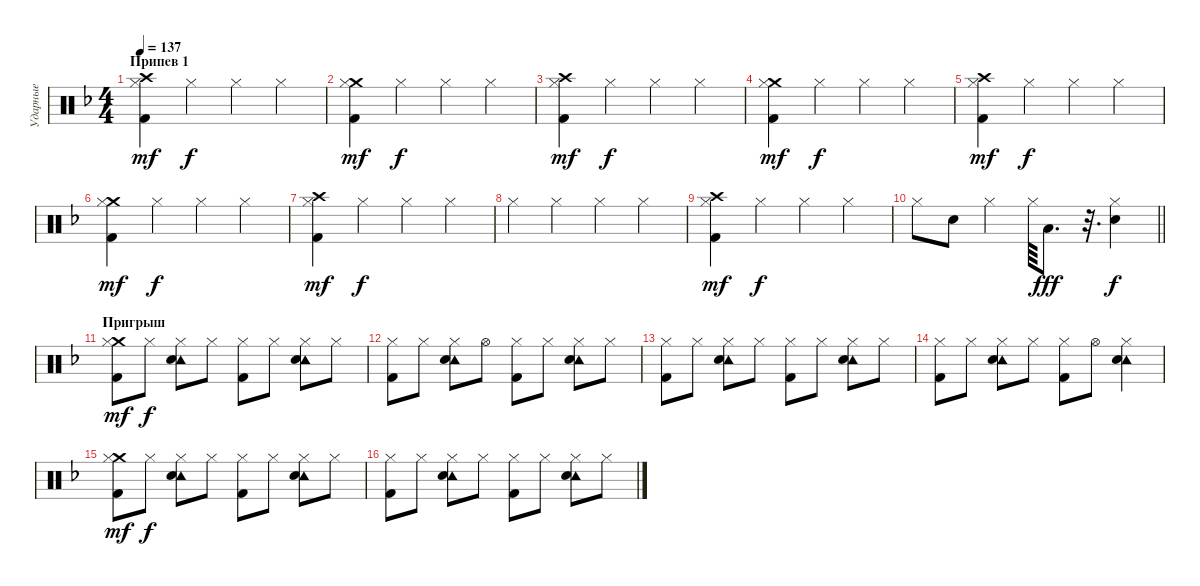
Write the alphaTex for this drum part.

\track ("Ударные" "Ударные") {instrument percussion}
\staff {score}
\articulation defaults
\ts (4 4)
\section ("" "Припев 1")
\tempo 137
\clef neutral
\ks dminor
("Crash high (hit)" "Hi-Hat (closed)" "Kick (hit) 2").4{dy mf} "Hi-Hat (closed)".4{dy f} "Hi-Hat (closed)".4 "Hi-Hat (closed)".4 |
("Crash medium (hit)" "Hi-Hat (closed)" "Kick (hit) 2").4{dy mf} "Hi-Hat (closed)".4{dy f} "Hi-Hat (closed)".4 "Hi-Hat (closed)".4 |
("Crash high (hit)" "Hi-Hat (closed)" "Kick (hit) 2").4{dy mf} "Hi-Hat (closed)".4{dy f} "Hi-Hat (closed)".4 "Hi-Hat (closed)".4 |
("Crash medium (hit)" "Hi-Hat (closed)" "Kick (hit) 2").4{dy mf} "Hi-Hat (closed)".4{dy f} "Hi-Hat (closed)".4 "Hi-Hat (closed)".4 |
("Crash high (hit)" "Hi-Hat (closed)" "Kick (hit) 2").4{dy mf} "Hi-Hat (closed)".4{dy f} "Hi-Hat (closed)".4 "Hi-Hat (closed)".4 |
("Crash medium (hit)" "Hi-Hat (closed)" "Kick (hit) 2").4{dy mf} "Hi-Hat (closed)".4{dy f} "Hi-Hat (closed)".4 "Hi-Hat (closed)".4 |
("Crash high (hit)" "Hi-Hat (closed)" "Kick (hit) 2").4{dy mf} "Hi-Hat (closed)".4{dy f} "Hi-Hat (closed)".4 "Hi-Hat (closed)".4 |
"Hi-Hat (closed)".4 "Hi-Hat (closed)".4 "Hi-Hat (closed)".4 "Hi-Hat (closed)".4 |
("Crash high (hit)" "Hi-Hat (closed)" "Kick (hit) 2").4{dy mf} "Hi-Hat (closed)".4{dy f} "Hi-Hat (closed)".4 "Hi-Hat (closed)".4 |
\barLineRight lightlight "Hi-Hat (closed)".8 "Electric Snare (hit)".8 "Hi-Hat (closed)".4 "Hi-Hat (closed)".64 "Low Floor Tom (hit)".8{d dy fff}
r.32{d} ("Hi-Hat (closed)" "Electric Snare (hit)").4{dy f} |
\section ("" "Пригрыш")
("Crash medium (hit)" "Hi-Hat (closed)" "Kick (hit) 2").8{dy mf} "Hi-Hat (closed)".8{dy f} ("Tambourine (hit)" "Hi-Hat (closed)" "Electric Snare (hit)").8 "Hi-Hat (closed)".8 ("Hi-Hat (closed)" "Kick (hit) 2").8 "Hi-Hat (closed)".8 ("Tambourine (hit)" "Hi-Hat (closed)" "Electric Snare (hit)").8 "Hi-Hat (closed)".8 |
("Hi-Hat (closed)" "Kick (hit) 2").8 "Hi-Hat (closed)".8 ("Tambourine (hit)" "Hi-Hat (closed)" "Electric Snare (hit)").8 "Hi-Hat (open)".8 ("Hi-Hat (closed)" "Kick (hit) 2").8 "Hi-Hat (closed)".8 ("Tambourine (hit)" "Hi-Hat (closed)" "Electric Snare (hit)").8 "Hi-Hat (closed)".8 |
("Hi-Hat (closed)" "Kick (hit) 2").8 "Hi-Hat (closed)".8 ("Tambourine (hit)" "Hi-Hat (closed)" "Electric Snare (hit)").8 "Hi-Hat (closed)".8 ("Hi-Hat (closed)" "Kick (hit) 2").8 "Hi-Hat (closed)".8 ("Tambourine (hit)" "Hi-Hat (closed)" "Electric Snare (hit)").8 "Hi-Hat (closed)".8 |
("Hi-Hat (closed)" "Kick (hit) 2").8 "Hi-Hat (closed)".8 ("Tambourine (hit)" "Hi-Hat (closed)" "Electric Snare (hit)").8 "Hi-Hat (closed)".8 ("Hi-Hat (closed)" "Kick (hit) 2").8 "Hi-Hat (open)".8 ("Tambourine (hit)" "Hi-Hat (closed)" "Electric Snare (hit)").4 |
("Crash medium (hit)" "Hi-Hat (closed)" "Kick (hit) 2").8{dy mf} "Hi-Hat (closed)".8{dy f} ("Tambourine (hit)" "Hi-Hat (closed)" "Electric Snare (hit)").8 "Hi-Hat (closed)".8 ("Hi-Hat (closed)" "Kick (hit) 2").8 "Hi-Hat (closed)".8 ("Tambourine (hit)" "Hi-Hat (closed)" "Electric Snare (hit)").8 "Hi-Hat (closed)".8 |
("Hi-Hat (closed)" "Kick (hit) 2").8 "Hi-Hat (closed)".8 ("Tambourine (hit)" "Hi-Hat (closed)" "Electric Snare (hit)").8 "Hi-Hat (closed)".8 ("Hi-Hat (closed)" "Kick (hit) 2").8 "Hi-Hat (closed)".8 ("Tambourine (hit)" "Hi-Hat (closed)" "Electric Snare (hit)").8 "Hi-Hat (closed)".8
